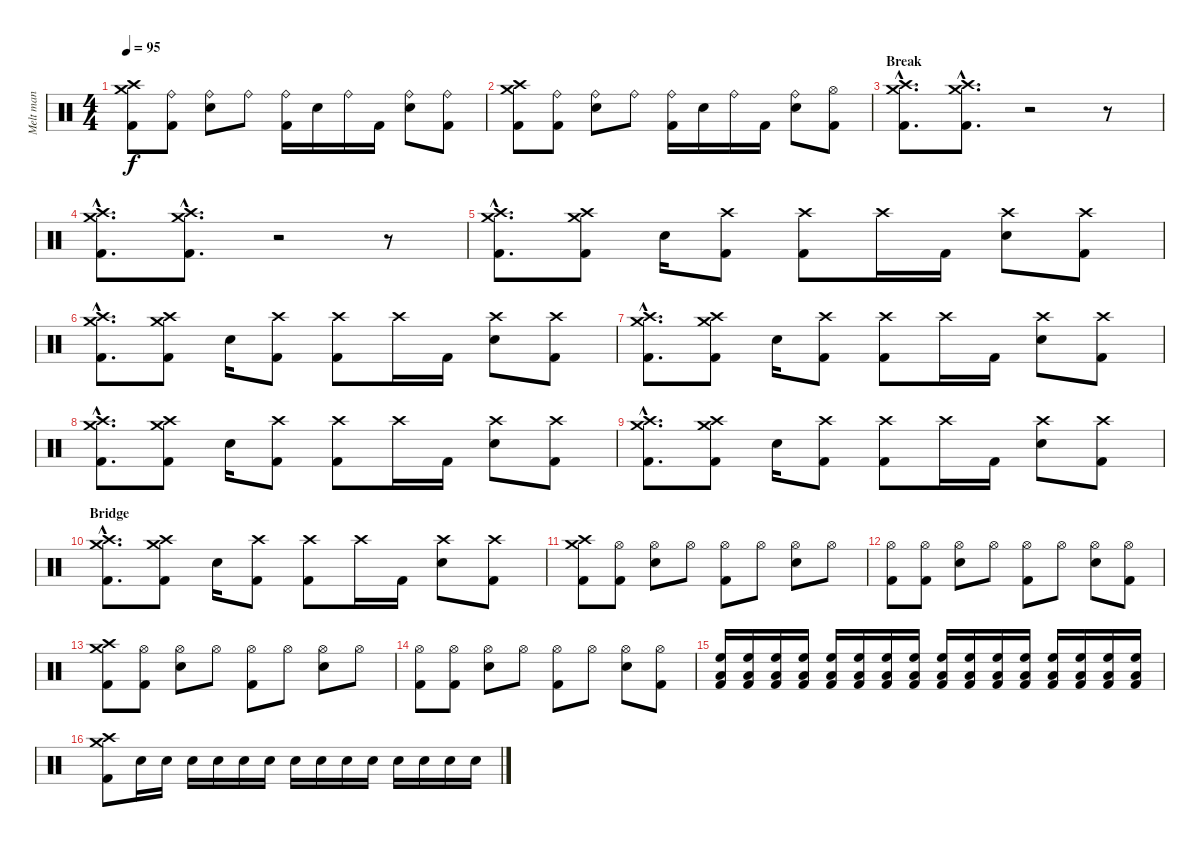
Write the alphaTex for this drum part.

\track ("Melt man" "Melt man") {instrument percussion}
\staff {score}
\articulation defaults
\ts (4 4)
\tempo 95
\clef neutral
\ks c
("Crash medium (hit)" "Crash high (hit)" "Kick (hit) 2").8{dy f} ("Ride (bell)" "Kick (hit) 2").8 ("Ride (bell)" "Snare (hit) 2").8 "Ride (bell)".8 ("Ride (bell)" "Kick (hit) 2").16 "Snare (hit) 2".16 "Ride (bell)".16 "Kick (hit) 2".16 ("Ride (bell)" "Snare (hit) 2").8 ("Ride (bell)" "Kick (hit) 2").8 |
("Crash medium (hit)" "Crash high (hit)" "Kick (hit) 2").8 ("Ride (bell)" "Kick (hit) 2").8 ("Ride (bell)" "Snare (hit) 2").8 "Ride (bell)".8 ("Ride (bell)" "Kick (hit) 2").16 "Snare (hit) 2".16 "Ride (bell)".16 "Kick (hit) 2".16 ("Ride (bell)" "Snare (hit) 2").8 ("Hi-Hat (open)" "Kick (hit) 2").8 |
\section ("" "Break")
("Crash medium (hit)"{hac} "Crash high (hit)"{hac} "Kick (hit) 2"{hac}).8{d} ("Crash high (hit)"{hac} "Crash medium (hit)"{hac} "Kick (hit) 2"{hac}).8{d} r.2 r.8 |
("Crash medium (hit)"{hac} "Crash high (hit)"{hac} "Kick (hit) 2"{hac}).8{d} ("Crash high (hit)"{hac} "Crash medium (hit)"{hac} "Kick (hit) 2"{hac}).8{d} r.2 r.8 |
("Crash medium (hit)"{hac} "Crash high (hit)"{hac} "Kick (hit) 2"{hac}).8{d} ("Crash high (hit)" "Crash medium (hit)" "Kick (hit) 2").8 "Snare (hit) 2".16 ("Crash high (hit)" "Kick (hit) 2").8 ("Crash high (hit)" "Kick (hit) 2").8 "Crash high (hit)".16 "Kick (hit) 2".16 ("Crash high (hit)" "Snare (hit) 2").8 ("Crash high (hit)" "Kick (hit) 2").8 |
("Crash medium (hit)"{hac} "Crash high (hit)"{hac} "Kick (hit) 2"{hac}).8{d} ("Crash high (hit)" "Crash medium (hit)" "Kick (hit) 2").8 "Snare (hit) 2".16 ("Crash high (hit)" "Kick (hit) 2").8 ("Crash high (hit)" "Kick (hit) 2").8 "Crash high (hit)".16 "Kick (hit) 2".16 ("Crash high (hit)" "Snare (hit) 2").8 ("Crash high (hit)" "Kick (hit) 2").8 |
("Crash medium (hit)"{hac} "Crash high (hit)"{hac} "Kick (hit) 2"{hac}).8{d} ("Crash high (hit)" "Crash medium (hit)" "Kick (hit) 2").8 "Snare (hit) 2".16 ("Crash high (hit)" "Kick (hit) 2").8 ("Crash high (hit)" "Kick (hit) 2").8 "Crash high (hit)".16 "Kick (hit) 2".16 ("Crash high (hit)" "Snare (hit) 2").8 ("Crash high (hit)" "Kick (hit) 2").8 |
("Crash medium (hit)"{hac} "Crash high (hit)"{hac} "Kick (hit) 2"{hac}).8{d} ("Crash high (hit)" "Crash medium (hit)" "Kick (hit) 2").8 "Snare (hit) 2".16 ("Crash high (hit)" "Kick (hit) 2").8 ("Crash high (hit)" "Kick (hit) 2").8 "Crash high (hit)".16 "Kick (hit) 2".16 ("Crash high (hit)" "Snare (hit) 2").8 ("Crash high (hit)" "Kick (hit) 2").8 |
("Crash medium (hit)"{hac} "Crash high (hit)"{hac} "Kick (hit) 2"{hac}).8{d} ("Crash high (hit)" "Crash medium (hit)" "Kick (hit) 2").8 "Snare (hit) 2".16 ("Crash high (hit)" "Kick (hit) 2").8 ("Crash high (hit)" "Kick (hit) 2").8 "Crash high (hit)".16 "Kick (hit) 2".16 ("Crash high (hit)" "Snare (hit) 2").8 ("Crash high (hit)" "Kick (hit) 2").8 |
\section ("" "Bridge")
("Crash medium (hit)"{hac} "Crash high (hit)"{hac} "Kick (hit) 2"{hac}).8{d} ("Crash high (hit)" "Crash medium (hit)" "Kick (hit) 2").8 "Snare (hit) 2".16 ("Crash high (hit)" "Kick (hit) 2").8 ("Crash high (hit)" "Kick (hit) 2").8 "Crash high (hit)".16 "Kick (hit) 2".16 ("Crash high (hit)" "Snare (hit) 2").8 ("Crash high (hit)" "Kick (hit) 2").8 |
("Crash medium (hit)" "Crash high (hit)" "Kick (hit) 2").8 ("Hi-Hat (open)" "Kick (hit) 2").8 ("Hi-Hat (open)" "Snare (hit) 2").8 "Hi-Hat (open)".8 ("Hi-Hat (open)" "Kick (hit) 2").8 "Hi-Hat (open)".8 ("Hi-Hat (open)" "Snare (hit) 2").8 "Hi-Hat (open)".8 |
("Hi-Hat (open)" "Kick (hit) 2").8 ("Hi-Hat (open)" "Kick (hit) 2").8 ("Hi-Hat (open)" "Snare (hit) 2").8 "Hi-Hat (open)".8 ("Hi-Hat (open)" "Kick (hit) 2").8 "Hi-Hat (open)".8 ("Hi-Hat (open)" "Snare (hit) 2").8 ("Hi-Hat (open)" "Kick (hit) 2").8 |
("Crash medium (hit)" "Crash high (hit)" "Kick (hit) 2").8 ("Hi-Hat (open)" "Kick (hit) 2").8 ("Hi-Hat (open)" "Snare (hit) 2").8 "Hi-Hat (open)".8 ("Hi-Hat (open)" "Kick (hit) 2").8 "Hi-Hat (open)".8 ("Hi-Hat (open)" "Snare (hit) 2").8 "Hi-Hat (open)".8 |
("Hi-Hat (open)" "Kick (hit) 2").8 ("Hi-Hat (open)" "Kick (hit) 2").8 ("Hi-Hat (open)" "Snare (hit) 2").8 "Hi-Hat (open)".8 ("Hi-Hat (open)" "Kick (hit) 2").8 "Hi-Hat (open)".8 ("Hi-Hat (open)" "Snare (hit) 2").8 ("Hi-Hat (open)" "Kick (hit) 2").8 |
("High Floor Tom (hit)" "Low Tom (hit)" "Kick (hit) 2").16 ("High Floor Tom (hit)" "Low Tom (hit)" "Kick (hit) 2").16 ("High Floor Tom (hit)" "Low Tom (hit)" "Kick (hit) 2").16 ("High Floor Tom (hit)" "Low Tom (hit)" "Kick (hit) 2").16 ("High Floor Tom (hit)" "Low Tom (hit)" "Kick (hit) 2").16 ("High Floor Tom (hit)" "Low Tom (hit)" "Kick (hit) 2").16 ("High Floor Tom (hit)" "Low Tom (hit)" "Kick (hit) 2").16 ("High Floor Tom (hit)" "Low Tom (hit)" "Kick (hit) 2").16 ("High Floor Tom (hit)" "Low Tom (hit)" "Kick (hit) 2").16 ("High Floor Tom (hit)" "Low Tom (hit)" "Kick (hit) 2").16 ("High Floor Tom (hit)" "Low Tom (hit)" "Kick (hit) 2").16 ("High Floor Tom (hit)" "Low Tom (hit)" "Kick (hit) 2").16 ("High Floor Tom (hit)" "Low Tom (hit)" "Kick (hit) 2").16 ("High Floor Tom (hit)" "Low Tom (hit)" "Kick (hit) 2").16 ("High Floor Tom (hit)" "Low Tom (hit)" "Kick (hit) 2").16 ("High Floor Tom (hit)" "Low Tom (hit)" "Kick (hit) 2").16 |
("Crash high (hit)" "Crash medium (hit)" "Kick (hit) 2").8 "Snare (hit) 2".16 "Snare (hit) 2".16 "Snare (hit) 2".16 "Snare (hit) 2".16 "Snare (hit) 2".16 "Snare (hit) 2".16 "Snare (hit) 2".16 "Snare (hit) 2".16 "Snare (hit) 2".16 "Snare (hit) 2".16 "Snare (hit) 2".16 "Snare (hit) 2".16 "Snare (hit) 2".16 "Snare (hit) 2".16
